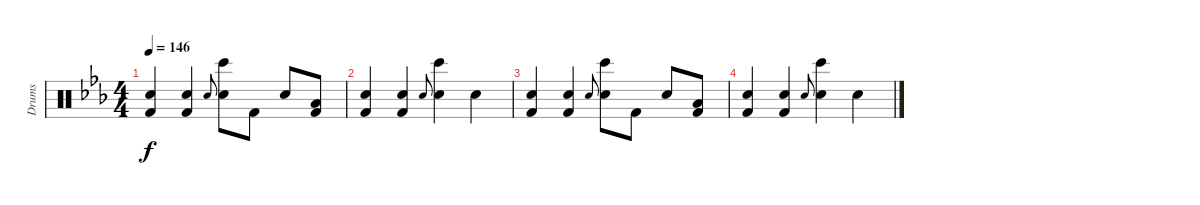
\track ("Drums" "Drums") {instrument percussion}
\staff {score}
\articulation defaults
\ts (4 4)
\tempo 146
\clef neutral
\ks cminor
("Hand Clap (hit)" "Kick (hit) 2").4{dy f} ("Hand Clap (hit)" "Kick (hit) 2").4 "Electric Snare (hit)".8{gr onbeat} ("Hand Clap (hit)" "Bongo High (hit)").8 "Kick (hit) 2".8 "Hand Clap (hit)".8 ("Low Floor Tom (hit)" "Kick (hit) 2").8 |
("Hand Clap (hit)" "Kick (hit) 2").4 ("Hand Clap (hit)" "Kick (hit) 2").4 "Electric Snare (hit)".8{gr onbeat} ("Hand Clap (hit)" "Bongo High (hit)").4 "Hand Clap (hit)".4 |
("Hand Clap (hit)" "Kick (hit) 2").4 ("Hand Clap (hit)" "Kick (hit) 2").4 "Electric Snare (hit)".8{gr onbeat} ("Hand Clap (hit)" "Bongo High (hit)").8 "Kick (hit) 2".8 "Hand Clap (hit)".8 ("Low Floor Tom (hit)" "Kick (hit) 2").8 |
("Hand Clap (hit)" "Kick (hit) 2").4 ("Hand Clap (hit)" "Kick (hit) 2").4 "Electric Snare (hit)".8{gr onbeat} ("Hand Clap (hit)" "Bongo High (hit)").4 "Hand Clap (hit)".4
